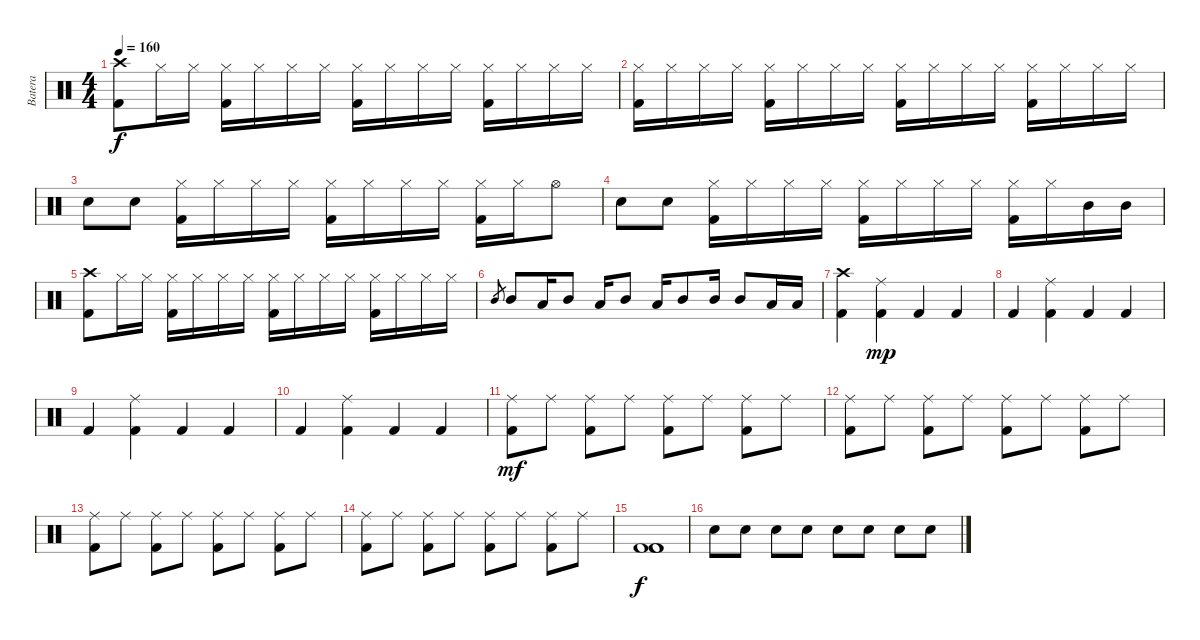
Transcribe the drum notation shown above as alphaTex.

\track ("Batera" "Batera") {instrument percussion}
\staff {score}
\articulation defaults
\ts (4 4)
\tempo 160
\clef neutral
\ks c
("Crash high (hit)" "Kick (hit) 2").8{dy f} "Hi-Hat (closed)".16 "Hi-Hat (closed)".16 ("Hi-Hat (closed)" "Kick (hit) 2").16 "Hi-Hat (closed)".16 "Hi-Hat (closed)".16 "Hi-Hat (closed)".16 ("Hi-Hat (closed)" "Kick (hit) 2").16 "Hi-Hat (closed)".16 "Hi-Hat (closed)".16 "Hi-Hat (closed)".16 ("Hi-Hat (closed)" "Kick (hit) 2").16 "Hi-Hat (closed)".16 "Hi-Hat (closed)".16 "Hi-Hat (closed)".16 |
("Hi-Hat (closed)" "Kick (hit) 2").16 "Hi-Hat (closed)".16 "Hi-Hat (closed)".16 "Hi-Hat (closed)".16 ("Hi-Hat (closed)" "Kick (hit) 2").16 "Hi-Hat (closed)".16 "Hi-Hat (closed)".16 "Hi-Hat (closed)".16 ("Hi-Hat (closed)" "Kick (hit) 2").16 "Hi-Hat (closed)".16 "Hi-Hat (closed)".16 "Hi-Hat (closed)".16 ("Hi-Hat (closed)" "Kick (hit) 2").16 "Hi-Hat (closed)".16 "Hi-Hat (closed)".16 "Hi-Hat (closed)".16 |
"Electric Snare (hit)".8 "Electric Snare (hit)".8 ("Hi-Hat (closed)" "Kick (hit) 2").16 "Hi-Hat (closed)".16 "Hi-Hat (closed)".16 "Hi-Hat (closed)".16 ("Hi-Hat (closed)" "Kick (hit) 2").16 "Hi-Hat (closed)".16 "Hi-Hat (closed)".16 "Hi-Hat (closed)".16 ("Hi-Hat (closed)" "Kick (hit) 2").16 "Hi-Hat (closed)".16 "Hi-Hat (open)".8 |
"Electric Snare (hit)".8 "Electric Snare (hit)".8 ("Hi-Hat (closed)" "Kick (hit) 2").16 "Hi-Hat (closed)".16 "Hi-Hat (closed)".16 "Hi-Hat (closed)".16 ("Hi-Hat (closed)" "Kick (hit) 2").16 "Hi-Hat (closed)".16 "Hi-Hat (closed)".16 "Hi-Hat (closed)".16 ("Hi-Hat (closed)" "Kick (hit) 2").16 "Hi-Hat (closed)".16 "Mid Tom (hit)".16 "Mid Tom (hit)".16 |
("Crash high (hit)" "Kick (hit) 2").8 "Hi-Hat (closed)".16 "Hi-Hat (closed)".16 ("Hi-Hat (closed)" "Kick (hit) 2").16 "Hi-Hat (closed)".16 "Hi-Hat (closed)".16 "Hi-Hat (closed)".16 ("Hi-Hat (closed)" "Kick (hit) 2").16 "Hi-Hat (closed)".16 "Hi-Hat (closed)".16 "Hi-Hat (closed)".16 ("Hi-Hat (closed)" "Kick (hit) 2").16 "Hi-Hat (closed)".16 "Hi-Hat (closed)".16 "Hi-Hat (closed)".16 |
"Mid Tom (hit)".8{gr} "Mid Tom (hit)".8 "Low Tom (hit)".16 "Mid Tom (hit)".8 "Low Tom (hit)".16 "Mid Tom (hit)".8 "Low Tom (hit)".16 "Mid Tom (hit)".8 "Mid Tom (hit)".16 "Mid Tom (hit)".8 "Low Tom (hit)".16 "Low Tom (hit)".16 |
("Crash high (hit)" "Kick (hit) 2").4 ("Ride (middle)" "Kick (hit) 2").4{dy mp} "Kick (hit) 2".4 "Kick (hit) 2".4 |
"Kick (hit) 2".4 ("Ride (middle)" "Kick (hit) 2").4 "Kick (hit) 2".4 "Kick (hit) 2".4 |
"Kick (hit) 2".4 ("Ride (middle)" "Kick (hit) 2").4 "Kick (hit) 2".4 "Kick (hit) 2".4 |
"Kick (hit) 2".4 ("Ride (middle)" "Kick (hit) 2").4 "Kick (hit) 2".4 "Kick (hit) 2".4 |
("Ride (middle)" "Kick (hit) 2").8{dy mf} "Ride (middle)".8 ("Ride (middle)" "Kick (hit) 2").8 "Ride (middle)".8 ("Ride (middle)" "Kick (hit) 2").8 "Ride (middle)".8 ("Ride (middle)" "Kick (hit) 2").8 "Ride (middle)".8 |
("Ride (middle)" "Kick (hit) 2").8 "Ride (middle)".8 ("Ride (middle)" "Kick (hit) 2").8 "Ride (middle)".8 ("Ride (middle)" "Kick (hit) 2").8 "Ride (middle)".8 ("Ride (middle)" "Kick (hit) 2").8 "Ride (middle)".8 |
("Ride (middle)" "Kick (hit) 2").8 "Ride (middle)".8 ("Ride (middle)" "Kick (hit) 2").8 "Ride (middle)".8 ("Ride (middle)" "Kick (hit) 2").8 "Ride (middle)".8 ("Ride (middle)" "Kick (hit) 2").8 "Ride (middle)".8 |
("Ride (middle)" "Kick (hit) 2").8 "Ride (middle)".8 ("Ride (middle)" "Kick (hit) 2").8 "Ride (middle)".8 ("Ride (middle)" "Kick (hit) 2").8 "Ride (middle)".8 ("Ride (middle)" "Kick (hit) 2").8 "Ride (middle)".8 |
("Kick (hit) 2" "Kick (hit) 2" "Kick (hit) 2").1{dy f} |
"Electric Snare (hit)".8 "Electric Snare (hit)".8 "Electric Snare (hit)".8 "Electric Snare (hit)".8 "Electric Snare (hit)".8 "Electric Snare (hit)".8 "Electric Snare (hit)".8 "Electric Snare (hit)".8
